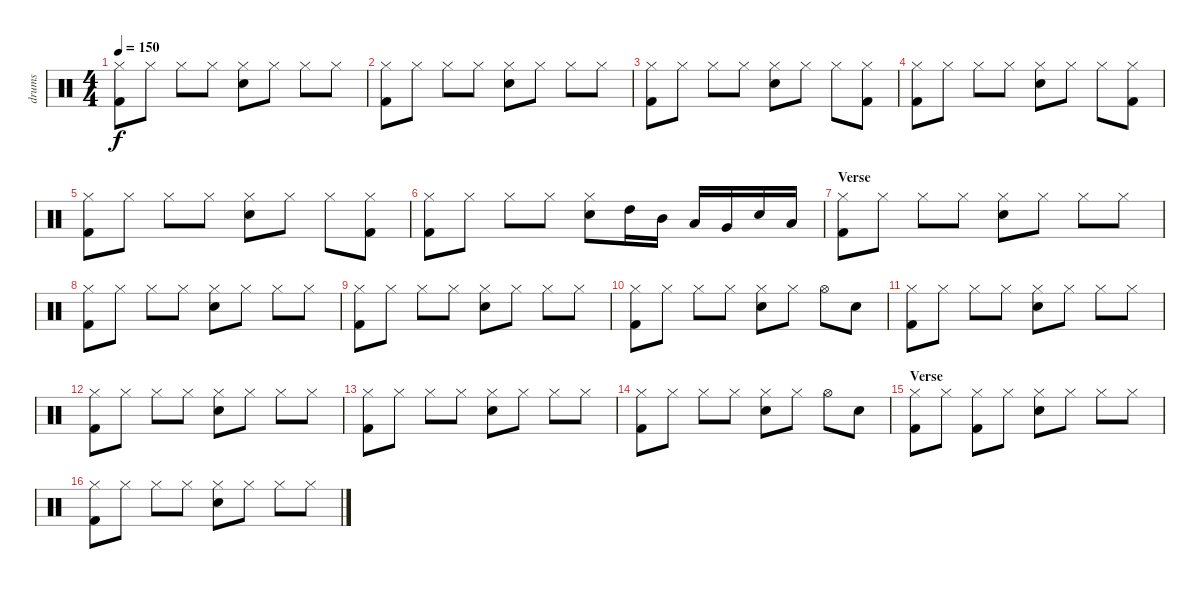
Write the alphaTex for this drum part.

\track ("drums" "drums") {instrument percussion}
\staff {score}
\articulation defaults
\ts (4 4)
\tempo 150
\clef neutral
\ks c
("Hi-Hat (closed)" "Kick (hit) 2").8{dy f} "Hi-Hat (closed)".8 "Hi-Hat (closed)".8 "Hi-Hat (closed)".8 ("Hi-Hat (closed)" "Snare (hit) 2").8 "Hi-Hat (closed)".8 "Hi-Hat (closed)".8 "Hi-Hat (closed)".8 |
("Hi-Hat (closed)" "Kick (hit) 2").8 "Hi-Hat (closed)".8 "Hi-Hat (closed)".8 "Hi-Hat (closed)".8 ("Hi-Hat (closed)" "Snare (hit) 2").8 "Hi-Hat (closed)".8 "Hi-Hat (closed)".8 "Hi-Hat (closed)".8 |
("Hi-Hat (closed)" "Kick (hit) 2").8 "Hi-Hat (closed)".8 "Hi-Hat (closed)".8 "Hi-Hat (closed)".8 ("Hi-Hat (closed)" "Snare (hit) 2").8 "Hi-Hat (closed)".8 "Hi-Hat (closed)".8 ("Hi-Hat (closed)" "Kick (hit) 2").8 |
("Hi-Hat (closed)" "Kick (hit) 2").8 "Hi-Hat (closed)".8 "Hi-Hat (closed)".8 "Hi-Hat (closed)".8 ("Hi-Hat (closed)" "Snare (hit) 2").8 "Hi-Hat (closed)".8 "Hi-Hat (closed)".8 ("Hi-Hat (closed)" "Kick (hit) 2").8 |
("Hi-Hat (closed)" "Kick (hit) 2").8 "Hi-Hat (closed)".8 "Hi-Hat (closed)".8 "Hi-Hat (closed)".8 ("Hi-Hat (closed)" "Snare (hit) 2").8 "Hi-Hat (closed)".8 "Hi-Hat (closed)".8 ("Hi-Hat (closed)" "Kick (hit) 2").8 |
("Hi-Hat (closed)" "Kick (hit) 2").8 "Hi-Hat (closed)".8 "Hi-Hat (closed)".8 "Hi-Hat (closed)".8 ("Hi-Hat (closed)" "Snare (hit) 2").8 "High Tom (hit)".16 "Mid Tom (hit)".16 "Low Tom (hit)".16 "Very Low Tom (hit)".16 "Snare (hit) 2".16 "Low Floor Tom (hit)".16 |
\section ("" "Verse")
("Hi-Hat (closed)" "Kick (hit) 2").8 "Hi-Hat (closed)".8 "Hi-Hat (closed)".8 "Hi-Hat (closed)".8 ("Hi-Hat (closed)" "Snare (hit) 2").8 "Hi-Hat (closed)".8 "Hi-Hat (closed)".8 "Hi-Hat (closed)".8 |
("Hi-Hat (closed)" "Kick (hit) 2").8 "Hi-Hat (closed)".8 "Hi-Hat (closed)".8 "Hi-Hat (closed)".8 ("Hi-Hat (closed)" "Snare (hit) 2").8 "Hi-Hat (closed)".8 "Hi-Hat (closed)".8 "Hi-Hat (closed)".8 |
("Hi-Hat (closed)" "Kick (hit) 2").8 "Hi-Hat (closed)".8 "Hi-Hat (closed)".8 "Hi-Hat (closed)".8 ("Hi-Hat (closed)" "Snare (hit) 2").8 "Hi-Hat (closed)".8 "Hi-Hat (closed)".8 "Hi-Hat (closed)".8 |
("Hi-Hat (closed)" "Kick (hit) 2").8 "Hi-Hat (closed)".8 "Hi-Hat (closed)".8 "Hi-Hat (closed)".8 ("Hi-Hat (closed)" "Snare (hit) 2").8 "Hi-Hat (closed)".8 "Hi-Hat (open)".8 "Snare (hit)"{x}.8 |
("Hi-Hat (closed)" "Kick (hit) 2").8 "Hi-Hat (closed)".8 "Hi-Hat (closed)".8 "Hi-Hat (closed)".8 ("Hi-Hat (closed)" "Snare (hit) 2").8 "Hi-Hat (closed)".8 "Hi-Hat (closed)".8 "Hi-Hat (closed)".8 |
("Hi-Hat (closed)" "Kick (hit) 2").8 "Hi-Hat (closed)".8 "Hi-Hat (closed)".8 "Hi-Hat (closed)".8 ("Hi-Hat (closed)" "Snare (hit) 2").8 "Hi-Hat (closed)".8 "Hi-Hat (closed)".8 "Hi-Hat (closed)".8 |
("Hi-Hat (closed)" "Kick (hit) 2").8 "Hi-Hat (closed)".8 "Hi-Hat (closed)".8 "Hi-Hat (closed)".8 ("Hi-Hat (closed)" "Snare (hit) 2").8 "Hi-Hat (closed)".8 "Hi-Hat (closed)".8 "Hi-Hat (closed)".8 |
("Hi-Hat (closed)" "Kick (hit) 2").8 "Hi-Hat (closed)".8 "Hi-Hat (closed)".8 "Hi-Hat (closed)".8 ("Hi-Hat (closed)" "Snare (hit) 2").8 "Hi-Hat (closed)".8 "Hi-Hat (open)".8 "Snare (hit)"{x}.8 |
\section ("" "Verse")
("Hi-Hat (closed)" "Kick (hit) 2").8 "Hi-Hat (closed)".8 ("Hi-Hat (closed)" "Kick (hit) 2").8 "Hi-Hat (closed)".8 ("Hi-Hat (closed)" "Snare (hit) 2").8 "Hi-Hat (closed)".8 "Hi-Hat (closed)".8 "Hi-Hat (closed)".8 |
("Hi-Hat (closed)" "Kick (hit) 2").8 "Hi-Hat (closed)".8 "Hi-Hat (closed)".8 "Hi-Hat (closed)".8 ("Hi-Hat (closed)" "Snare (hit) 2").8 "Hi-Hat (closed)".8 "Hi-Hat (closed)".8 "Hi-Hat (closed)".8
